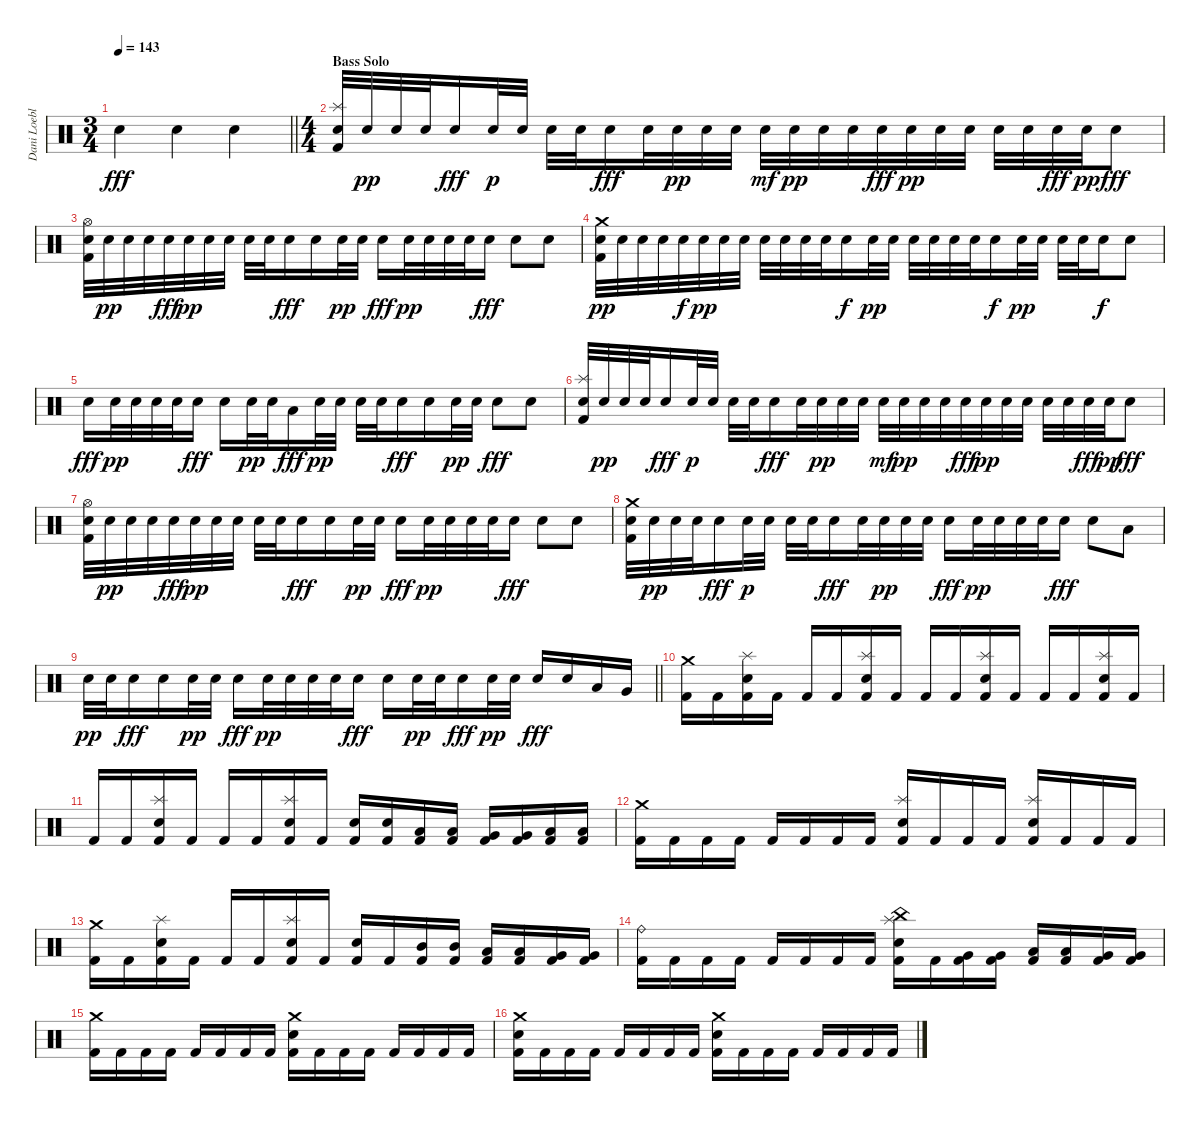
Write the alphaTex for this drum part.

\track ("Dani Loeble" "Dani Loebl") {instrument percussion}
\staff {score}
\articulation defaults
\ts (3 4)
\tempo 143
\clef neutral
\barLineRight lightlight
\ks c "Electric Snare (hit)".4{dy fff} "Electric Snare (hit)".4 "Electric Snare (hit)".4
|
\ts (4 4)
\section ("" "Bass Solo")
("Splash (hit)" "Electric Snare (hit)" "Kick (hit) 2").32 "Electric Snare (hit)".32{dy pp} "Electric Snare (hit)".32 "Electric Snare (hit)".32 "Electric Snare (hit)".16{dy fff} "Electric Snare (hit)".32{dy p} "Electric Snare (hit)".32 "Electric Snare (hit)".32 "Electric Snare (hit)".32 "Electric Snare (hit)".16{dy fff} "Electric Snare (hit)".32 "Electric Snare (hit)".32{dy pp} "Electric Snare (hit)".32 "Electric Snare (hit)".32 "Electric Snare (hit)".32{dy mf} "Electric Snare (hit)".32{dy pp} "Electric Snare (hit)".32 "Electric Snare (hit)".32 "Electric Snare (hit)".32{dy fff} "Electric Snare (hit)".32{dy pp} "Electric Snare (hit)".32 "Electric Snare (hit)".32 "Electric Snare (hit)".32 "Electric Snare (hit)".32 "Electric Snare (hit)".32{dy fff} "Electric Snare (hit)".32{dy pp} "Electric Snare (hit)".8{dy fff} |
("Hi-Hat (open)" "Electric Snare (hit)" "Kick (hit) 2").32 "Electric Snare (hit)".32{dy pp} "Electric Snare (hit)".32 "Electric Snare (hit)".32 "Electric Snare (hit)".32{dy fff} "Electric Snare (hit)".32{dy pp} "Electric Snare (hit)".32 "Electric Snare (hit)".32 "Electric Snare (hit)".32 "Electric Snare (hit)".32 "Electric Snare (hit)".16{dy fff} "Electric Snare (hit)".16 "Electric Snare (hit)".32{dy pp} "Electric Snare (hit)".32 "Electric Snare (hit)".16{dy fff} "Electric Snare (hit)".32{dy pp} "Electric Snare (hit)".32 "Electric Snare (hit)".32 "Electric Snare (hit)".32 "Electric Snare (hit)".16{dy fff} "Electric Snare (hit)".8 "Electric Snare (hit)".8 |
("Crash medium (hit)" "Electric Snare (hit)" "Kick (hit) 2").32{dy pp} "Electric Snare (hit)".32 "Electric Snare (hit)".32 "Electric Snare (hit)".32 "Electric Snare (hit)".32{dy f} "Electric Snare (hit)".32{dy pp} "Electric Snare (hit)".32 "Electric Snare (hit)".32 "Electric Snare (hit)".32 "Electric Snare (hit)".32 "Electric Snare (hit)".32 "Electric Snare (hit)".32 "Electric Snare (hit)".16{dy f} "Electric Snare (hit)".32{dy pp} "Electric Snare (hit)".32 "Electric Snare (hit)".32 "Electric Snare (hit)".32 "Electric Snare (hit)".32 "Electric Snare (hit)".32 "Electric Snare (hit)".16{dy f} "Electric Snare (hit)".32{dy pp} "Electric Snare (hit)".32 "Electric Snare (hit)".32 "Electric Snare (hit)".32 "Electric Snare (hit)".16{dy f} "Electric Snare (hit)".8 |
"Electric Snare (hit)".16{dy fff} "Electric Snare (hit)".32{dy pp} "Electric Snare (hit)".32 "Electric Snare (hit)".32 "Electric Snare (hit)".32 "Electric Snare (hit)".16{dy fff} "Electric Snare (hit)".16 "Electric Snare (hit)".32{dy pp} "Electric Snare (hit)".32 "Low Tom (hit)".16{dy fff} "Electric Snare (hit)".32{dy pp} "Electric Snare (hit)".32 "Electric Snare (hit)".32 "Electric Snare (hit)".32 "Electric Snare (hit)".16{dy fff} "Electric Snare (hit)".16 "Electric Snare (hit)".32{dy pp} "Electric Snare (hit)".32 "Electric Snare (hit)".8{dy fff} "Electric Snare (hit)".8 |
("Splash (hit)" "Electric Snare (hit)" "Kick (hit) 2").32 "Electric Snare (hit)".32{dy pp} "Electric Snare (hit)".32 "Electric Snare (hit)".32 "Electric Snare (hit)".16{dy fff} "Electric Snare (hit)".32{dy p} "Electric Snare (hit)".32 "Electric Snare (hit)".32 "Electric Snare (hit)".32 "Electric Snare (hit)".16{dy fff} "Electric Snare (hit)".32 "Electric Snare (hit)".32{dy pp} "Electric Snare (hit)".32 "Electric Snare (hit)".32 "Electric Snare (hit)".32{dy mf} "Electric Snare (hit)".32{dy pp} "Electric Snare (hit)".32 "Electric Snare (hit)".32 "Electric Snare (hit)".32{dy fff} "Electric Snare (hit)".32{dy pp} "Electric Snare (hit)".32 "Electric Snare (hit)".32 "Electric Snare (hit)".32 "Electric Snare (hit)".32 "Electric Snare (hit)".32{dy fff} "Electric Snare (hit)".32{dy pp} "Electric Snare (hit)".8{dy fff} |
("Hi-Hat (open)" "Electric Snare (hit)" "Kick (hit) 2").32 "Electric Snare (hit)".32{dy pp} "Electric Snare (hit)".32 "Electric Snare (hit)".32 "Electric Snare (hit)".32{dy fff} "Electric Snare (hit)".32{dy pp} "Electric Snare (hit)".32 "Electric Snare (hit)".32 "Electric Snare (hit)".32 "Electric Snare (hit)".32 "Electric Snare (hit)".16{dy fff} "Electric Snare (hit)".16 "Electric Snare (hit)".32{dy pp} "Electric Snare (hit)".32 "Electric Snare (hit)".16{dy fff} "Electric Snare (hit)".32{dy pp} "Electric Snare (hit)".32 "Electric Snare (hit)".32 "Electric Snare (hit)".32 "Electric Snare (hit)".16{dy fff} "Electric Snare (hit)".8 "Electric Snare (hit)".8 |
("Crash medium (hit)" "Electric Snare (hit)" "Kick (hit) 2").32 "Electric Snare (hit)".32{dy pp} "Electric Snare (hit)".32 "Electric Snare (hit)".32 "Electric Snare (hit)".16{dy fff} "Electric Snare (hit)".32{dy p} "Electric Snare (hit)".32 "Electric Snare (hit)".32 "Electric Snare (hit)".32 "Electric Snare (hit)".16{dy fff} "Electric Snare (hit)".32 "Electric Snare (hit)".32{dy pp} "Electric Snare (hit)".32 "Electric Snare (hit)".32 "Electric Snare (hit)".16{dy fff} "Electric Snare (hit)".32{dy pp} "Electric Snare (hit)".32 "Electric Snare (hit)".32 "Electric Snare (hit)".32 "Electric Snare (hit)".16{dy fff} "Electric Snare (hit)".8 "Low Tom (hit)".8 |
\barLineRight lightlight "Electric Snare (hit)".32{dy pp} "Electric Snare (hit)".32 "Electric Snare (hit)".16{dy fff} "Electric Snare (hit)".16 "Electric Snare (hit)".32{dy pp} "Electric Snare (hit)".32 "Electric Snare (hit)".16{dy fff} "Electric Snare (hit)".32{dy pp} "Electric Snare (hit)".32 "Electric Snare (hit)".32 "Electric Snare (hit)".32 "Electric Snare (hit)".16{dy fff} "Electric Snare (hit)".16 "Electric Snare (hit)".32{dy pp} "Electric Snare (hit)".32 "Electric Snare (hit)".16{dy fff} "Electric Snare (hit)".32{dy pp} "Electric Snare (hit)".32 "Electric Snare (hit)".16{dy fff} "Electric Snare (hit)".16 "Low Tom (hit)".16 "Very Low Tom (hit)".16
|
\section ("" "")
("Crash medium (hit)" "Kick (hit) 2").16 "Kick (hit) 2".16 ("Splash (hit)" "Electric Snare (hit)" "Kick (hit) 2").16 "Kick (hit) 2".16 "Kick (hit) 2".16 "Kick (hit) 2".16 ("Splash (hit)" "Electric Snare (hit)" "Kick (hit) 2").16 "Kick (hit) 2".16 "Kick (hit) 2".16 "Kick (hit) 2".16 ("Splash (hit)" "Electric Snare (hit)" "Kick (hit) 2").16 "Kick (hit) 2".16 "Kick (hit) 2".16 "Kick (hit) 2".16 ("Splash (hit)" "Electric Snare (hit)" "Kick (hit) 2").16 "Kick (hit) 2".16 |
"Kick (hit) 2".16 "Kick (hit) 2".16 ("Splash (hit)" "Electric Snare (hit)" "Kick (hit) 2").16 "Kick (hit) 2".16 "Kick (hit) 2".16 "Kick (hit) 2".16 ("Splash (hit)" "Electric Snare (hit)" "Kick (hit) 2").16 "Kick (hit) 2".16 ("Electric Snare (hit)" "Kick (hit) 2").16 ("Electric Snare (hit)" "Kick (hit) 2").16 ("Low Tom (hit)" "Kick (hit) 2").16 ("Low Tom (hit)" "Kick (hit) 2").16 ("Very Low Tom (hit)" "Kick (hit) 2").16 ("Very Low Tom (hit)" "Kick (hit) 2").16 ("Low Floor Tom (hit)" "Kick (hit) 2").16 ("Low Floor Tom (hit)" "Kick (hit) 2").16 |
("Crash medium (hit)" "Kick (hit) 2").16 "Kick (hit) 2".16 "Kick (hit) 2".16 "Kick (hit) 2".16 "Kick (hit) 2".16 "Kick (hit) 2".16 "Kick (hit) 2".16 "Kick (hit) 2".16 ("Splash (hit)" "Electric Snare (hit)" "Kick (hit) 2").16 "Kick (hit) 2".16 "Kick (hit) 2".16 "Kick (hit) 2".16 ("Splash (hit)" "Electric Snare (hit)" "Kick (hit) 2").16 "Kick (hit) 2".16 "Kick (hit) 2".16 "Kick (hit) 2".16 |
("Crash medium (hit)" "Kick (hit) 2").16 "Kick (hit) 2".16 ("Splash (hit)" "Electric Snare (hit)" "Kick (hit) 2").16 "Kick (hit) 2".16 "Kick (hit) 2".16 "Kick (hit) 2".16 ("Splash (hit)" "Electric Snare (hit)" "Kick (hit) 2").16 "Kick (hit) 2".16 ("Electric Snare (hit)" "Kick (hit) 2").16 "Kick (hit) 2".16 ("Mid Tom (hit)" "Kick (hit) 2").16 ("Mid Tom (hit)" "Kick (hit) 2").16 ("Low Tom (hit)" "Kick (hit) 2").16 ("Low Tom (hit)" "Kick (hit) 2").16 ("Very Low Tom (hit)" "Kick (hit) 2").16 ("Very Low Tom (hit)" "Kick (hit) 2").16 |
("Ride (bell)" "Kick (hit) 2").16 "Kick (hit) 2".16 "Kick (hit) 2".16 "Kick (hit) 2".16 "Kick (hit) 2".16 "Kick (hit) 2".16 "Kick (hit) 2".16 "Kick (hit) 2".16 ("China (hit)" "Splash (hit)" "Electric Snare (hit)" "Kick (hit) 2").16 "Kick (hit) 2".16 ("Very Low Tom (hit)" "Kick (hit) 2").16 ("Very Low Tom (hit)" "Kick (hit) 2").16 ("Low Tom (hit)" "Kick (hit) 2").16 ("Low Tom (hit)" "Kick (hit) 2").16 ("Very Low Tom (hit)" "Kick (hit) 2").16 ("Very Low Tom (hit)" "Kick (hit) 2").16 |
("Crash medium (hit)" "Kick (hit) 2").16 "Kick (hit) 2".16 "Kick (hit) 2".16 "Kick (hit) 2".16 "Kick (hit) 2".16 "Kick (hit) 2".16 "Kick (hit) 2".16 "Kick (hit) 2".16 ("Crash medium (hit)" "Electric Snare (hit)" "Kick (hit) 2").16 "Kick (hit) 2".16 "Kick (hit) 2".16 "Kick (hit) 2".16 "Kick (hit) 2".16 "Kick (hit) 2".16 "Kick (hit) 2".16 "Kick (hit) 2".16 |
("Crash medium (hit)" "Electric Snare (hit)" "Kick (hit) 2").16 "Kick (hit) 2".16 "Kick (hit) 2".16 "Kick (hit) 2".16 "Kick (hit) 2".16 "Kick (hit) 2".16 "Kick (hit) 2".16 "Kick (hit) 2".16 ("Crash medium (hit)" "Electric Snare (hit)" "Kick (hit) 2").16 "Kick (hit) 2".16 "Kick (hit) 2".16 "Kick (hit) 2".16 "Kick (hit) 2".16 "Kick (hit) 2".16 "Kick (hit) 2".16 "Kick (hit) 2".16
